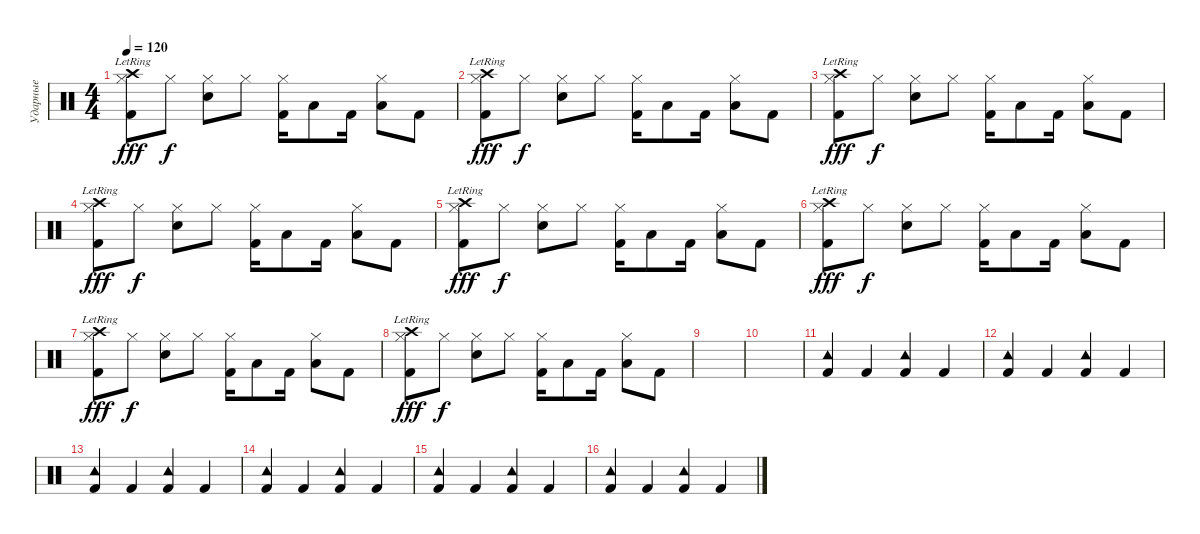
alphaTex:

\track ("Ударные" "Ударные") {instrument percussion}
\staff {score}
\articulation defaults
\ts (4 4)
\tempo 120
\clef neutral
\ks c
("Hi-Hat (closed)" "Kick (hit) 2" "Crash high (hit)"{lr}).8{dy fff} "Hi-Hat (closed)".8{dy f} ("Hi-Hat (closed)" "Snare (hit) 2").8 "Hi-Hat (closed)".8 ("Kick (hit) 2" "Hi-Hat (closed)").16 "Low Tom (hit)".8 "Kick (hit) 2".16 ("Low Tom (hit)" "Hi-Hat (closed)").8 "Kick (hit) 2".8 |
("Hi-Hat (closed)" "Kick (hit) 2" "Crash high (hit)"{lr}).8{dy fff} "Hi-Hat (closed)".8{dy f} ("Hi-Hat (closed)" "Snare (hit) 2").8 "Hi-Hat (closed)".8 ("Kick (hit) 2" "Hi-Hat (closed)").16 "Low Tom (hit)".8 "Kick (hit) 2".16 ("Low Tom (hit)" "Hi-Hat (closed)").8 "Kick (hit) 2".8 |
("Hi-Hat (closed)" "Kick (hit) 2" "Crash high (hit)"{lr}).8{dy fff} "Hi-Hat (closed)".8{dy f} ("Hi-Hat (closed)" "Snare (hit) 2").8 "Hi-Hat (closed)".8 ("Kick (hit) 2" "Hi-Hat (closed)").16 "Low Tom (hit)".8 "Kick (hit) 2".16 ("Low Tom (hit)" "Hi-Hat (closed)").8 "Kick (hit) 2".8 |
("Hi-Hat (closed)" "Kick (hit) 2" "Crash high (hit)"{lr}).8{dy fff} "Hi-Hat (closed)".8{dy f} ("Hi-Hat (closed)" "Snare (hit) 2").8 "Hi-Hat (closed)".8 ("Kick (hit) 2" "Hi-Hat (closed)").16 "Low Tom (hit)".8 "Kick (hit) 2".16 ("Low Tom (hit)" "Hi-Hat (closed)").8 "Kick (hit) 2".8 |
("Hi-Hat (closed)" "Kick (hit) 2" "Crash high (hit)"{lr}).8{dy fff} "Hi-Hat (closed)".8{dy f} ("Hi-Hat (closed)" "Snare (hit) 2").8 "Hi-Hat (closed)".8 ("Kick (hit) 2" "Hi-Hat (closed)").16 "Low Tom (hit)".8 "Kick (hit) 2".16 ("Low Tom (hit)" "Hi-Hat (closed)").8 "Kick (hit) 2".8 |
("Hi-Hat (closed)" "Kick (hit) 2" "Crash high (hit)"{lr}).8{dy fff} "Hi-Hat (closed)".8{dy f} ("Hi-Hat (closed)" "Snare (hit) 2").8 "Hi-Hat (closed)".8 ("Kick (hit) 2" "Hi-Hat (closed)").16 "Low Tom (hit)".8 "Kick (hit) 2".16 ("Low Tom (hit)" "Hi-Hat (closed)").8 "Kick (hit) 2".8 |
("Hi-Hat (closed)" "Kick (hit) 2" "Crash high (hit)"{lr}).8{dy fff} "Hi-Hat (closed)".8{dy f} ("Hi-Hat (closed)" "Snare (hit) 2").8 "Hi-Hat (closed)".8 ("Kick (hit) 2" "Hi-Hat (closed)").16 "Low Tom (hit)".8 "Kick (hit) 2".16 ("Low Tom (hit)" "Hi-Hat (closed)").8 "Kick (hit) 2".8 |
("Hi-Hat (closed)" "Kick (hit) 2" "Crash high (hit)"{lr}).8{dy fff} "Hi-Hat (closed)".8{dy f} ("Hi-Hat (closed)" "Snare (hit) 2").8 "Hi-Hat (closed)".8 ("Kick (hit) 2" "Hi-Hat (closed)").16 "Low Tom (hit)".8 "Kick (hit) 2".16 ("Low Tom (hit)" "Hi-Hat (closed)").8 "Kick (hit) 2".8 |
|
|
("Kick (hit) 2" "Tambourine (hit)").4 "Kick (hit) 2".4 ("Kick (hit) 2" "Tambourine (hit)").4 "Kick (hit) 2".4 |
("Kick (hit) 2" "Tambourine (hit)").4 "Kick (hit) 2".4 ("Kick (hit) 2" "Tambourine (hit)").4 "Kick (hit) 2".4 |
("Kick (hit) 2" "Tambourine (hit)").4 "Kick (hit) 2".4 ("Kick (hit) 2" "Tambourine (hit)").4 "Kick (hit) 2".4 |
("Kick (hit) 2" "Tambourine (hit)").4 "Kick (hit) 2".4 ("Kick (hit) 2" "Tambourine (hit)").4 "Kick (hit) 2".4 |
("Kick (hit) 2" "Tambourine (hit)").4 "Kick (hit) 2".4 ("Kick (hit) 2" "Tambourine (hit)").4 "Kick (hit) 2".4 |
("Kick (hit) 2" "Tambourine (hit)").4 "Kick (hit) 2".4 ("Kick (hit) 2" "Tambourine (hit)").4 "Kick (hit) 2".4
